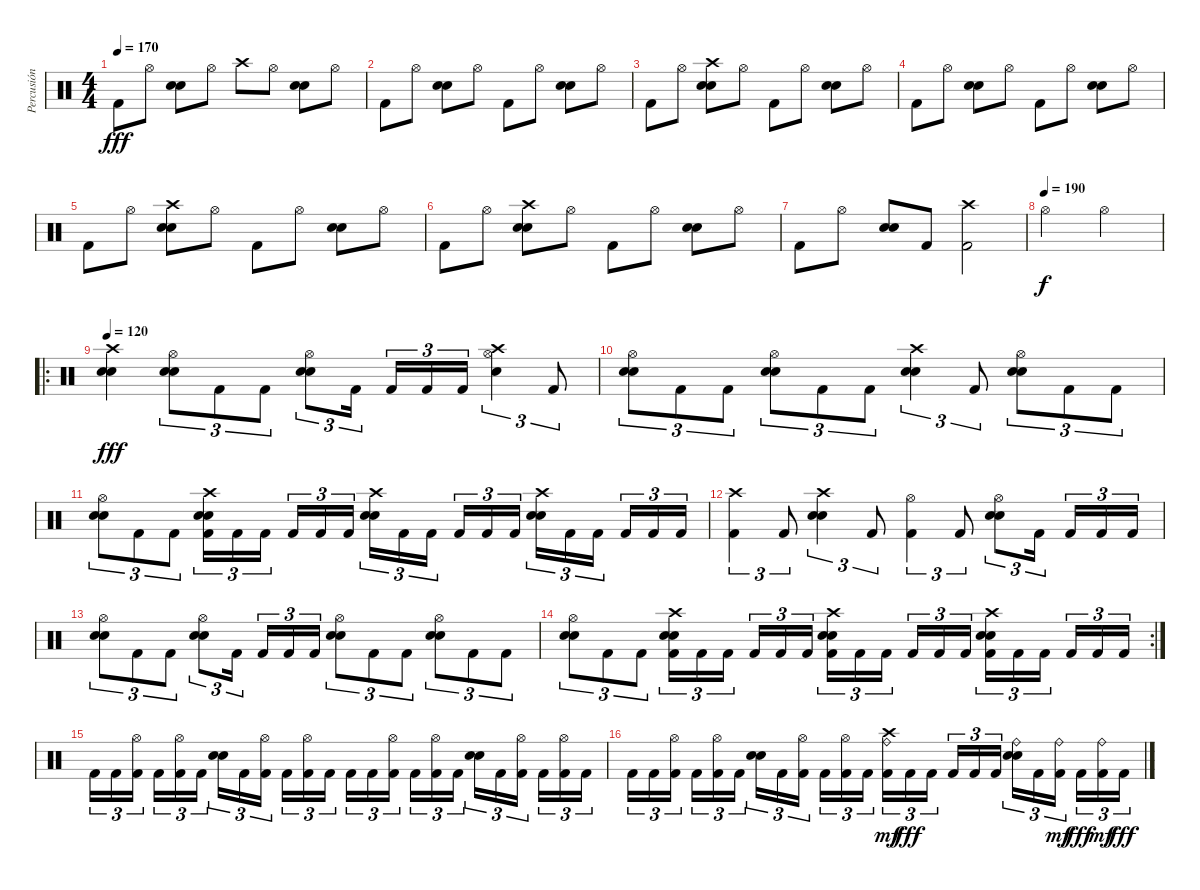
\track ("Percusión" "Percusión") {instrument percussion}
\staff {score}
\articulation defaults
\ts (4 4)
\tempo 170
\clef neutral
\ks c "Kick (hit) 2".8{dy fff} "Hi-Hat (open)".8
("Snare (hit) 2" "Electric Snare (hit)").8 "Hi-Hat (open)".8 "Crash high (hit)".8 "Hi-Hat (open)".8 ("Snare (hit) 2" "Electric Snare (hit)").8 "Hi-Hat (open)".8 |
"Kick (hit) 2".8 "Hi-Hat (open)".8 ("Snare (hit) 2" "Electric Snare (hit)").8 "Hi-Hat (open)".8 "Kick (hit) 2".8 "Hi-Hat (open)".8 ("Snare (hit) 2" "Electric Snare (hit)").8 "Hi-Hat (open)".8 |
"Kick (hit) 2".8 "Hi-Hat (open)".8 ("Crash high (hit)" "Electric Snare (hit)" "Snare (hit) 2").8 "Hi-Hat (open)".8 "Kick (hit) 2".8 "Hi-Hat (open)".8 ("Snare (hit) 2" "Electric Snare (hit)").8 "Hi-Hat (open)".8 |
"Kick (hit) 2".8 "Hi-Hat (open)".8 ("Snare (hit) 2" "Electric Snare (hit)").8 "Hi-Hat (open)".8 "Kick (hit) 2".8 "Hi-Hat (open)".8 ("Snare (hit) 2" "Electric Snare (hit)").8 "Hi-Hat (open)".8 |
"Kick (hit) 2".8 "Hi-Hat (open)".8 ("Snare (hit) 2" "Electric Snare (hit)" "Crash high (hit)").8 "Hi-Hat (open)".8 "Kick (hit) 2".8 "Hi-Hat (open)".8 ("Snare (hit) 2" "Electric Snare (hit)").8 "Hi-Hat (open)".8 |
"Kick (hit) 2".8 "Hi-Hat (open)".8 ("Snare (hit) 2" "Electric Snare (hit)" "Crash high (hit)").8 "Hi-Hat (open)".8 "Kick (hit) 2".8 "Hi-Hat (open)".8 ("Snare (hit) 2" "Electric Snare (hit)").8 "Hi-Hat (open)".8 |
"Kick (hit) 2".8 "Hi-Hat (open)".8 ("Snare (hit) 2" "Electric Snare (hit)").8 "Kick (hit) 2".8 ("Kick (hit) 2" "Crash high (hit)").2 |
\tempo (190)
"Hi-Hat (open)".2{dy f} "Hi-Hat (open)".2 |
\ro
\tempo 120
("Snare (hit) 2" "Electric Snare (hit)" "Crash high (hit)").4{dy fff} ("Snare (hit) 2" "Electric Snare (hit)" "Hi-Hat (open)").8{tu (3 2)} "Kick (hit) 2".8{tu (3 2)} "Kick (hit) 2".8{tu (3 2)} ("Snare (hit) 2" "Electric Snare (hit)" "Hi-Hat (open)").8{tu (3 2)} "Kick (hit) 2".16{tu (3 2) beam splitsecondary} "Kick (hit) 2".16{tu (3 2)} "Kick (hit) 2".16{tu (3 2)} "Kick (hit) 2".16{tu (3 2)} ("Snare (hit) 2" "Crash high (hit)" "Hi-Hat (open)").4{tu (3 2)} "Kick (hit) 2".8{tu (3 2)} |
("Snare (hit) 2" "Electric Snare (hit)" "Hi-Hat (open)").8{tu (3 2)} "Kick (hit) 2".8{tu (3 2)} "Kick (hit) 2".8{tu (3 2)} ("Snare (hit) 2" "Electric Snare (hit)" "Hi-Hat (open)").8{tu (3 2)} "Kick (hit) 2".8{tu (3 2)} "Kick (hit) 2".8{tu (3 2)} ("Snare (hit) 2" "Electric Snare (hit)" "Crash high (hit)").4{tu (3 2)} "Kick (hit) 2".8{tu (3 2)} ("Snare (hit) 2" "Electric Snare (hit)" "Hi-Hat (open)").8{tu (3 2)} "Kick (hit) 2".8{tu (3 2)} "Kick (hit) 2".8{tu (3 2)} |
("Snare (hit) 2" "Electric Snare (hit)" "Hi-Hat (open)").8{tu (3 2)} "Kick (hit) 2".8{tu (3 2)} "Kick (hit) 2".8{tu (3 2)} ("Kick (hit) 2" "Crash high (hit)" "Snare (hit) 2" "Electric Snare (hit)").16{tu (3 2)} "Kick (hit) 2".16{tu (3 2)} "Kick (hit) 2".16{tu (3 2) beam splitsecondary} "Kick (hit) 2".16{tu (3 2)} "Kick (hit) 2".16{tu (3 2)} "Kick (hit) 2".16{tu (3 2)} ("Snare (hit) 2" "Electric Snare (hit)" "Crash high (hit)").16{tu (3 2)} "Kick (hit) 2".16{tu (3 2)} "Kick (hit) 2".16{tu (3 2) beam splitsecondary} "Kick (hit) 2".16{tu (3 2)} "Kick (hit) 2".16{tu (3 2)} "Kick (hit) 2".16{tu (3 2)} ("Snare (hit) 2" "Electric Snare (hit)" "Crash high (hit)").16{tu (3 2)} "Kick (hit) 2".16{tu (3 2)} "Kick (hit) 2".16{tu (3 2) beam splitsecondary} "Kick (hit) 2".16{tu (3 2)} "Kick (hit) 2".16{tu (3 2)} "Kick (hit) 2".16{tu (3 2)} |
("Kick (hit) 2" "Crash high (hit)").4{tu (3 2)} "Kick (hit) 2".8{tu (3 2)} ("Snare (hit) 2" "Electric Snare (hit)" "Crash high (hit)").4{tu (3 2)} "Kick (hit) 2".8{tu (3 2)} ("Kick (hit) 2" "Hi-Hat (open)").4{tu (3 2)} "Kick (hit) 2".8{tu (3 2)} ("Snare (hit) 2" "Electric Snare (hit)" "Hi-Hat (open)").8{tu (3 2)} "Kick (hit) 2".16{tu (3 2) beam splitsecondary} "Kick (hit) 2".16{tu (3 2)} "Kick (hit) 2".16{tu (3 2)} "Kick (hit) 2".16{tu (3 2)} |
("Snare (hit) 2" "Electric Snare (hit)" "Hi-Hat (open)").8{tu (3 2)} "Kick (hit) 2".8{tu (3 2)} "Kick (hit) 2".8{tu (3 2)} ("Snare (hit) 2" "Electric Snare (hit)" "Hi-Hat (open)").8{tu (3 2)} "Kick (hit) 2".16{tu (3 2) beam splitsecondary} "Kick (hit) 2".16{tu (3 2)} "Kick (hit) 2".16{tu (3 2)} "Kick (hit) 2".16{tu (3 2)} ("Snare (hit) 2" "Electric Snare (hit)" "Hi-Hat (open)").8{tu (3 2)} "Kick (hit) 2".8{tu (3 2)} "Kick (hit) 2".8{tu (3 2)} ("Snare (hit) 2" "Electric Snare (hit)" "Hi-Hat (open)").8{tu (3 2)} "Kick (hit) 2".8{tu (3 2)} "Kick (hit) 2".8{tu (3 2)} |
\rc 2
("Snare (hit) 2" "Electric Snare (hit)" "Hi-Hat (open)").8{tu (3 2)} "Kick (hit) 2".8{tu (3 2)} "Kick (hit) 2".8{tu (3 2)} ("Snare (hit) 2" "Kick (hit) 2" "Crash high (hit)" "Electric Snare (hit)").16{tu (3 2)} "Kick (hit) 2".16{tu (3 2)} "Kick (hit) 2".16{tu (3 2) beam splitsecondary} "Kick (hit) 2".16{tu (3 2)} "Kick (hit) 2".16{tu (3 2)} "Kick (hit) 2".16{tu (3 2)} ("Kick (hit) 2" "Snare (hit) 2" "Electric Snare (hit)" "Crash high (hit)").16{tu (3 2)} "Kick (hit) 2".16{tu (3 2)} "Kick (hit) 2".16{tu (3 2) beam splitsecondary} "Kick (hit) 2".16{tu (3 2)} "Kick (hit) 2".16{tu (3 2)} "Kick (hit) 2".16{tu (3 2)} ("Kick (hit) 2" "Snare (hit) 2" "Electric Snare (hit)" "Crash high (hit)").16{tu (3 2)} "Kick (hit) 2".16{tu (3 2)} "Kick (hit) 2".16{tu (3 2) beam splitsecondary} "Kick (hit) 2".16{tu (3 2)} "Kick (hit) 2".16{tu (3 2)} "Kick (hit) 2".16{tu (3 2)} |
"Kick (hit) 2".16{tu (3 2)} "Kick (hit) 2".16{tu (3 2)} ("Kick (hit) 2" "Hi-Hat (open)").16{tu (3 2) beam splitsecondary} "Kick (hit) 2".16{tu (3 2)} ("Kick (hit) 2" "Hi-Hat (open)").16{tu (3 2)} "Kick (hit) 2".16{tu (3 2)} ("Snare (hit) 2" "Electric Snare (hit)").16{tu (3 2)} "Kick (hit) 2".16{tu (3 2)} ("Kick (hit) 2" "Hi-Hat (open)").16{tu (3 2) beam splitsecondary} "Kick (hit) 2".16{tu (3 2)} ("Kick (hit) 2" "Hi-Hat (open)").16{tu (3 2)} "Kick (hit) 2".16{tu (3 2)} "Kick (hit) 2".16{tu (3 2)} "Kick (hit) 2".16{tu (3 2)} ("Kick (hit) 2" "Hi-Hat (open)").16{tu (3 2) beam splitsecondary} "Kick (hit) 2".16{tu (3 2)} ("Kick (hit) 2" "Hi-Hat (open)").16{tu (3 2)} "Kick (hit) 2".16{tu (3 2)} ("Snare (hit) 2" "Electric Snare (hit)").16{tu (3 2)} "Kick (hit) 2".16{tu (3 2)} ("Kick (hit) 2" "Hi-Hat (open)").16{tu (3 2) beam splitsecondary} "Kick (hit) 2".16{tu (3 2)} ("Kick (hit) 2" "Hi-Hat (open)").16{tu (3 2)} "Kick (hit) 2".16{tu (3 2)} |
"Kick (hit) 2".16{tu (3 2)} "Kick (hit) 2".16{tu (3 2)} ("Kick (hit) 2" "Hi-Hat (open)").16{tu (3 2) beam splitsecondary} "Kick (hit) 2".16{tu (3 2)} ("Kick (hit) 2" "Hi-Hat (open)").16{tu (3 2)} "Kick (hit) 2".16{tu (3 2)} ("Snare (hit) 2" "Electric Snare (hit)").16{tu (3 2)} "Kick (hit) 2".16{tu (3 2)} ("Kick (hit) 2" "Hi-Hat (open)").16{tu (3 2) beam splitsecondary} "Kick (hit) 2".16{tu (3 2)} ("Kick (hit) 2" "Hi-Hat (open)").16{tu (3 2)} "Kick (hit) 2".16{tu (3 2)} ("Kick (hit) 2" "Crash high (hit)" "Ride (bell)").16{tu (3 2) dy mf} "Kick (hit) 2".16{tu (3 2) dy fff} "Kick (hit) 2".16{tu (3 2) beam splitsecondary} "Kick (hit) 2".16{tu (3 2)} "Kick (hit) 2".16{tu (3 2)} "Kick (hit) 2".16{tu (3 2)} ("Snare (hit) 2" "Electric Snare (hit)" "Ride (bell)").16{tu (3 2)} "Kick (hit) 2".16{tu (3 2)} ("Kick (hit) 2" "Ride (bell)").16{tu (3 2) dy mf beam splitsecondary} "Kick (hit) 2".16{tu (3 2) dy fff} ("Kick (hit) 2" "Ride (bell)").16{tu (3 2) dy mf} "Kick (hit) 2".16{tu (3 2) dy fff}
